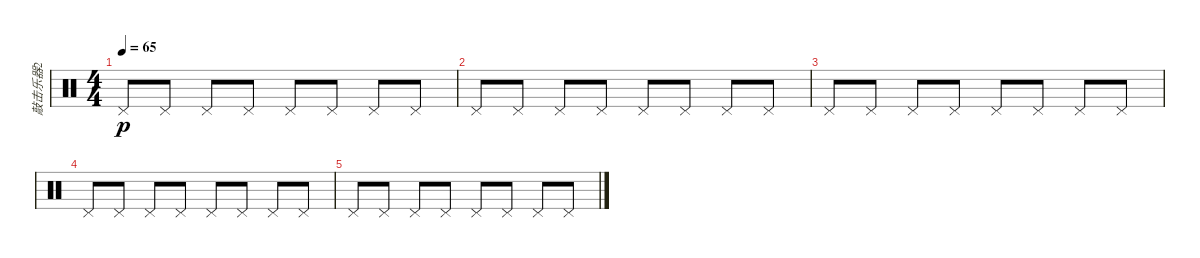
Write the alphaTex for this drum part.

\track ("敲击乐器2" "敲击乐器2") {instrument percussion}
\staff {score}
\articulation defaults
\ts (4 4)
\tempo 65
\clef neutral
\ks c "Pedal Hi-Hat (hit)".8{dy p} "Pedal Hi-Hat (hit)".8 "Pedal Hi-Hat (hit)".8 "Pedal Hi-Hat (hit)".8 "Pedal Hi-Hat (hit)".8 "Pedal Hi-Hat (hit)".8 "Pedal Hi-Hat (hit)".8 "Pedal Hi-Hat (hit)".8
|
"Pedal Hi-Hat (hit)".8 "Pedal Hi-Hat (hit)".8 "Pedal Hi-Hat (hit)".8 "Pedal Hi-Hat (hit)".8 "Pedal Hi-Hat (hit)".8 "Pedal Hi-Hat (hit)".8 "Pedal Hi-Hat (hit)".8 "Pedal Hi-Hat (hit)".8 |
"Pedal Hi-Hat (hit)".8 "Pedal Hi-Hat (hit)".8 "Pedal Hi-Hat (hit)".8 "Pedal Hi-Hat (hit)".8 "Pedal Hi-Hat (hit)".8 "Pedal Hi-Hat (hit)".8 "Pedal Hi-Hat (hit)".8 "Pedal Hi-Hat (hit)".8 |
"Pedal Hi-Hat (hit)".8 "Pedal Hi-Hat (hit)".8 "Pedal Hi-Hat (hit)".8 "Pedal Hi-Hat (hit)".8 "Pedal Hi-Hat (hit)".8 "Pedal Hi-Hat (hit)".8 "Pedal Hi-Hat (hit)".8 "Pedal Hi-Hat (hit)".8 |
"Pedal Hi-Hat (hit)".8 "Pedal Hi-Hat (hit)".8 "Pedal Hi-Hat (hit)".8 "Pedal Hi-Hat (hit)".8 "Pedal Hi-Hat (hit)".8 "Pedal Hi-Hat (hit)".8 "Pedal Hi-Hat (hit)".8 "Pedal Hi-Hat (hit)".8
